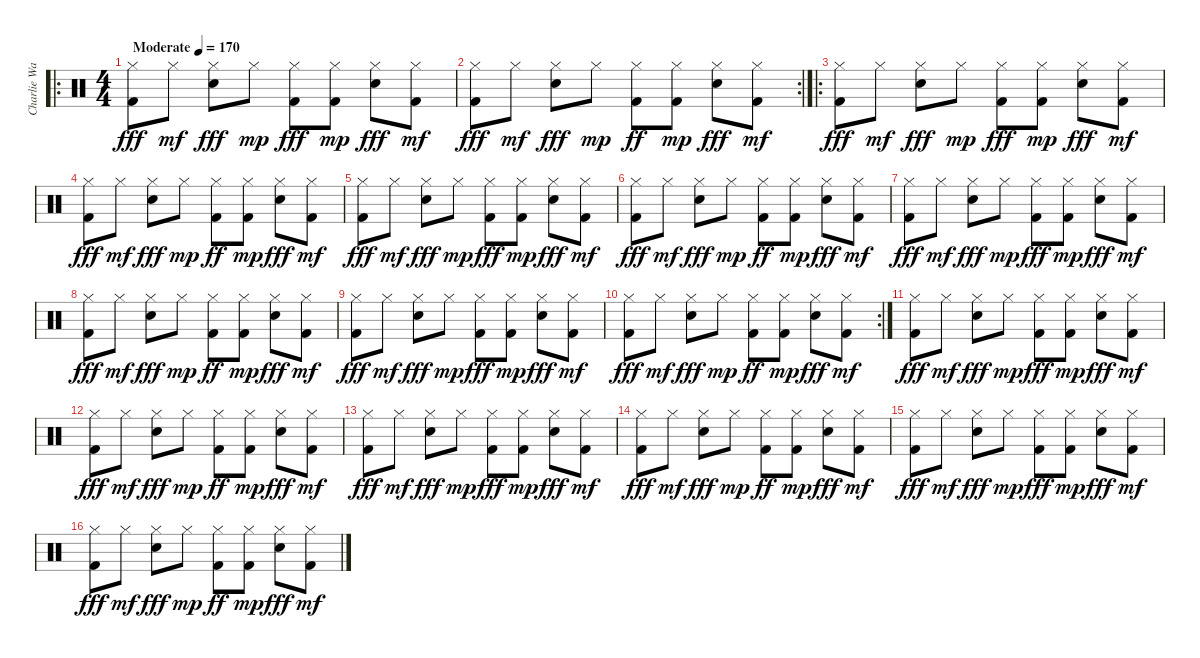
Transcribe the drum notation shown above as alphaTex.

\track ("Charlie Watts" "Charlie Wa") {instrument percussion}
\staff {score}
\articulation defaults
\ro
\ts (4 4)
\tempo (170 "Moderate")
\clef neutral
\ks c
("Kick (hit) 2" "Hi-Hat (closed)").8{dy fff} "Hi-Hat (closed)".8{dy mf} ("Electric Snare (hit)" "Hi-Hat (closed)").8{dy fff} "Hi-Hat (closed)".8{dy mp} ("Kick (hit) 2" "Hi-Hat (closed)").8{dy fff} ("Kick (hit) 2" "Hi-Hat (closed)").8{dy mp} ("Electric Snare (hit)" "Hi-Hat (closed)").8{dy fff} ("Kick (hit) 2" "Hi-Hat (closed)").8{dy mf} |
\rc 2
("Kick (hit) 2" "Hi-Hat (closed)").8{dy fff} "Hi-Hat (closed)".8{dy mf} ("Electric Snare (hit)" "Hi-Hat (closed)").8{dy fff} "Hi-Hat (closed)".8{dy mp} ("Kick (hit) 2" "Hi-Hat (closed)").8{dy ff} ("Kick (hit) 2" "Hi-Hat (closed)").8{dy mp} ("Electric Snare (hit)" "Hi-Hat (closed)").8{dy fff} ("Kick (hit) 2" "Hi-Hat (closed)").8{dy mf} |
\ro
("Kick (hit) 2" "Hi-Hat (closed)").8{dy fff} "Hi-Hat (closed)".8{dy mf} ("Electric Snare (hit)" "Hi-Hat (closed)").8{dy fff} "Hi-Hat (closed)".8{dy mp} ("Kick (hit) 2" "Hi-Hat (closed)").8{dy fff} ("Kick (hit) 2" "Hi-Hat (closed)").8{dy mp} ("Electric Snare (hit)" "Hi-Hat (closed)").8{dy fff} ("Kick (hit) 2" "Hi-Hat (closed)").8{dy mf} |
("Kick (hit) 2" "Hi-Hat (closed)").8{dy fff} "Hi-Hat (closed)".8{dy mf} ("Electric Snare (hit)" "Hi-Hat (closed)").8{dy fff} "Hi-Hat (closed)".8{dy mp} ("Kick (hit) 2" "Hi-Hat (closed)").8{dy ff} ("Kick (hit) 2" "Hi-Hat (closed)").8{dy mp} ("Electric Snare (hit)" "Hi-Hat (closed)").8{dy fff} ("Kick (hit) 2" "Hi-Hat (closed)").8{dy mf} |
("Kick (hit) 2" "Hi-Hat (closed)").8{dy fff} "Hi-Hat (closed)".8{dy mf} ("Electric Snare (hit)" "Hi-Hat (closed)").8{dy fff} "Hi-Hat (closed)".8{dy mp} ("Kick (hit) 2" "Hi-Hat (closed)").8{dy fff} ("Kick (hit) 2" "Hi-Hat (closed)").8{dy mp} ("Electric Snare (hit)" "Hi-Hat (closed)").8{dy fff} ("Kick (hit) 2" "Hi-Hat (closed)").8{dy mf} |
("Kick (hit) 2" "Hi-Hat (closed)").8{dy fff} "Hi-Hat (closed)".8{dy mf} ("Electric Snare (hit)" "Hi-Hat (closed)").8{dy fff} "Hi-Hat (closed)".8{dy mp} ("Kick (hit) 2" "Hi-Hat (closed)").8{dy ff} ("Kick (hit) 2" "Hi-Hat (closed)").8{dy mp} ("Electric Snare (hit)" "Hi-Hat (closed)").8{dy fff} ("Kick (hit) 2" "Hi-Hat (closed)").8{dy mf} |
("Kick (hit) 2" "Hi-Hat (closed)").8{dy fff} "Hi-Hat (closed)".8{dy mf} ("Electric Snare (hit)" "Hi-Hat (closed)").8{dy fff} "Hi-Hat (closed)".8{dy mp} ("Kick (hit) 2" "Hi-Hat (closed)").8{dy fff} ("Kick (hit) 2" "Hi-Hat (closed)").8{dy mp} ("Electric Snare (hit)" "Hi-Hat (closed)").8{dy fff} ("Kick (hit) 2" "Hi-Hat (closed)").8{dy mf} |
("Kick (hit) 2" "Hi-Hat (closed)").8{dy fff} "Hi-Hat (closed)".8{dy mf} ("Electric Snare (hit)" "Hi-Hat (closed)").8{dy fff} "Hi-Hat (closed)".8{dy mp} ("Kick (hit) 2" "Hi-Hat (closed)").8{dy ff} ("Kick (hit) 2" "Hi-Hat (closed)").8{dy mp} ("Electric Snare (hit)" "Hi-Hat (closed)").8{dy fff} ("Kick (hit) 2" "Hi-Hat (closed)").8{dy mf} |
("Kick (hit) 2" "Hi-Hat (closed)").8{dy fff} "Hi-Hat (closed)".8{dy mf} ("Electric Snare (hit)" "Hi-Hat (closed)").8{dy fff} "Hi-Hat (closed)".8{dy mp} ("Kick (hit) 2" "Hi-Hat (closed)").8{dy fff} ("Kick (hit) 2" "Hi-Hat (closed)").8{dy mp} ("Electric Snare (hit)" "Hi-Hat (closed)").8{dy fff} ("Kick (hit) 2" "Hi-Hat (closed)").8{dy mf} |
\rc 2
("Kick (hit) 2" "Hi-Hat (closed)").8{dy fff} "Hi-Hat (closed)".8{dy mf} ("Electric Snare (hit)" "Hi-Hat (closed)").8{dy fff} "Hi-Hat (closed)".8{dy mp} ("Kick (hit) 2" "Hi-Hat (closed)").8{dy ff} ("Kick (hit) 2" "Hi-Hat (closed)").8{dy mp} ("Electric Snare (hit)" "Hi-Hat (closed)").8{dy fff} ("Kick (hit) 2" "Hi-Hat (closed)").8{dy mf} |
("Kick (hit) 2" "Hi-Hat (closed)").8{dy fff} "Hi-Hat (closed)".8{dy mf} ("Electric Snare (hit)" "Hi-Hat (closed)").8{dy fff} "Hi-Hat (closed)".8{dy mp} ("Kick (hit) 2" "Hi-Hat (closed)").8{dy fff} ("Kick (hit) 2" "Hi-Hat (closed)").8{dy mp} ("Electric Snare (hit)" "Hi-Hat (closed)").8{dy fff} ("Kick (hit) 2" "Hi-Hat (closed)").8{dy mf} |
("Kick (hit) 2" "Hi-Hat (closed)").8{dy fff} "Hi-Hat (closed)".8{dy mf} ("Electric Snare (hit)" "Hi-Hat (closed)").8{dy fff} "Hi-Hat (closed)".8{dy mp} ("Kick (hit) 2" "Hi-Hat (closed)").8{dy ff} ("Kick (hit) 2" "Hi-Hat (closed)").8{dy mp} ("Electric Snare (hit)" "Hi-Hat (closed)").8{dy fff} ("Kick (hit) 2" "Hi-Hat (closed)").8{dy mf} |
("Kick (hit) 2" "Hi-Hat (closed)").8{dy fff} "Hi-Hat (closed)".8{dy mf} ("Electric Snare (hit)" "Hi-Hat (closed)").8{dy fff} "Hi-Hat (closed)".8{dy mp} ("Kick (hit) 2" "Hi-Hat (closed)").8{dy fff} ("Kick (hit) 2" "Hi-Hat (closed)").8{dy mp} ("Electric Snare (hit)" "Hi-Hat (closed)").8{dy fff} ("Kick (hit) 2" "Hi-Hat (closed)").8{dy mf} |
("Kick (hit) 2" "Hi-Hat (closed)").8{dy fff} "Hi-Hat (closed)".8{dy mf} ("Electric Snare (hit)" "Hi-Hat (closed)").8{dy fff} "Hi-Hat (closed)".8{dy mp} ("Kick (hit) 2" "Hi-Hat (closed)").8{dy ff} ("Kick (hit) 2" "Hi-Hat (closed)").8{dy mp} ("Electric Snare (hit)" "Hi-Hat (closed)").8{dy fff} ("Kick (hit) 2" "Hi-Hat (closed)").8{dy mf} |
("Kick (hit) 2" "Hi-Hat (closed)").8{dy fff} "Hi-Hat (closed)".8{dy mf} ("Electric Snare (hit)" "Hi-Hat (closed)").8{dy fff} "Hi-Hat (closed)".8{dy mp} ("Kick (hit) 2" "Hi-Hat (closed)").8{dy fff} ("Kick (hit) 2" "Hi-Hat (closed)").8{dy mp} ("Electric Snare (hit)" "Hi-Hat (closed)").8{dy fff} ("Kick (hit) 2" "Hi-Hat (closed)").8{dy mf} |
("Kick (hit) 2" "Hi-Hat (closed)").8{dy fff} "Hi-Hat (closed)".8{dy mf} ("Electric Snare (hit)" "Hi-Hat (closed)").8{dy fff} "Hi-Hat (closed)".8{dy mp} ("Kick (hit) 2" "Hi-Hat (closed)").8{dy ff} ("Kick (hit) 2" "Hi-Hat (closed)").8{dy mp} ("Electric Snare (hit)" "Hi-Hat (closed)").8{dy fff} ("Kick (hit) 2" "Hi-Hat (closed)").8{dy mf}
